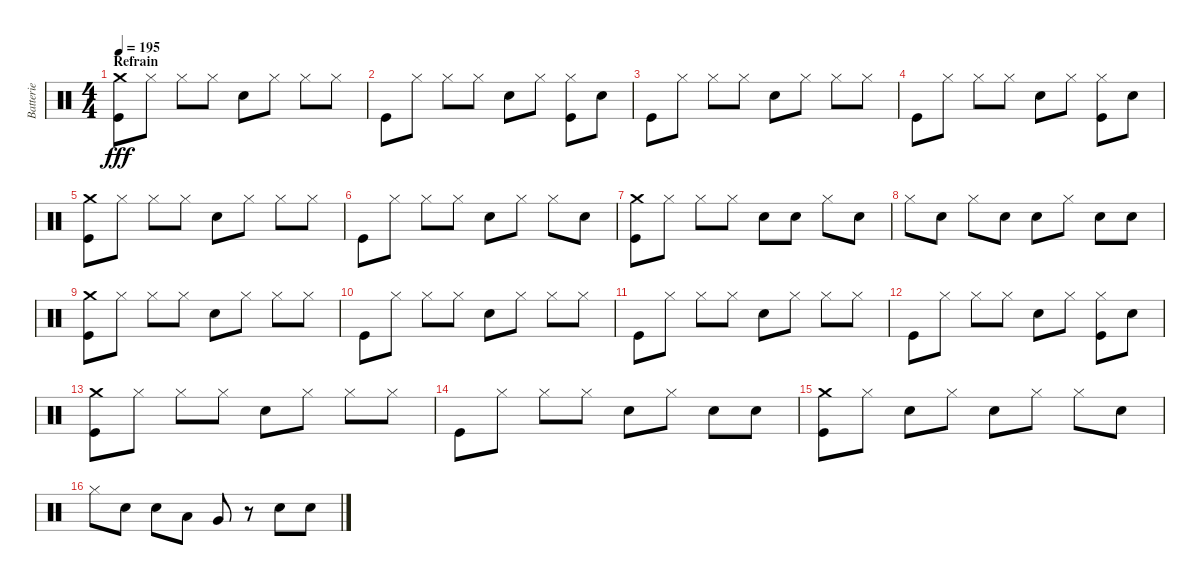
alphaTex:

\track ("Batterie" "Batterie") {instrument percussion}
\staff {score}
\articulation defaults
\ts (4 4)
\section ("" "Refrain")
\tempo 195
\clef neutral
\ks c
("Crash medium (hit)" "Kick (hit)").8{dy fff} "Hi-Hat (closed)".8 "Hi-Hat (closed)".8 "Hi-Hat (closed)".8 "Electric Snare (hit)".8 "Hi-Hat (closed)".8 "Hi-Hat (closed)".8 "Hi-Hat (closed)".8 |
"Kick (hit)".8 "Hi-Hat (closed)".8 "Hi-Hat (closed)".8 "Hi-Hat (closed)".8 "Electric Snare (hit)".8 "Hi-Hat (closed)".8 ("Hi-Hat (closed)" "Kick (hit)").8 "Electric Snare (hit)".8 |
"Kick (hit)".8 "Hi-Hat (closed)".8 "Hi-Hat (closed)".8 "Hi-Hat (closed)".8 "Electric Snare (hit)".8 "Hi-Hat (closed)".8 "Hi-Hat (closed)".8 "Hi-Hat (closed)".8 |
"Kick (hit)".8 "Hi-Hat (closed)".8 "Hi-Hat (closed)".8 "Hi-Hat (closed)".8 "Electric Snare (hit)".8 "Hi-Hat (closed)".8 ("Hi-Hat (closed)" "Kick (hit)").8 "Electric Snare (hit)".8 |
("Crash medium (hit)" "Kick (hit)").8 "Hi-Hat (closed)".8 "Hi-Hat (closed)".8 "Hi-Hat (closed)".8 "Electric Snare (hit)".8 "Hi-Hat (closed)".8 "Hi-Hat (closed)".8 "Hi-Hat (closed)".8 |
"Kick (hit)".8 "Hi-Hat (closed)".8 "Hi-Hat (closed)".8 "Hi-Hat (closed)".8 "Electric Snare (hit)".8 "Hi-Hat (closed)".8 "Hi-Hat (closed)".8 "Electric Snare (hit)".8 |
("Crash medium (hit)" "Kick (hit)").8 "Hi-Hat (closed)".8 "Hi-Hat (closed)".8 "Hi-Hat (closed)".8 "Electric Snare (hit)".8 "Electric Snare (hit)".8 "Hi-Hat (closed)".8 "Electric Snare (hit)".8 |
"Hi-Hat (closed)".8 "Electric Snare (hit)".8 "Hi-Hat (closed)".8 "Electric Snare (hit)".8 "Electric Snare (hit)".8 "Hi-Hat (closed)".8 "Electric Snare (hit)".8 "Electric Snare (hit)".8 |
("Crash medium (hit)" "Kick (hit)").8 "Hi-Hat (closed)".8 "Hi-Hat (closed)".8 "Hi-Hat (closed)".8 "Electric Snare (hit)".8 "Hi-Hat (closed)".8 "Hi-Hat (closed)".8 "Hi-Hat (closed)".8 |
"Kick (hit)".8 "Hi-Hat (closed)".8 "Hi-Hat (closed)".8 "Hi-Hat (closed)".8 "Electric Snare (hit)".8 "Hi-Hat (closed)".8 "Hi-Hat (closed)".8 "Hi-Hat (closed)".8 |
"Kick (hit)".8 "Hi-Hat (closed)".8 "Hi-Hat (closed)".8 "Hi-Hat (closed)".8 "Electric Snare (hit)".8 "Hi-Hat (closed)".8 "Hi-Hat (closed)".8 "Hi-Hat (closed)".8 |
"Kick (hit)".8 "Hi-Hat (closed)".8 "Hi-Hat (closed)".8 "Hi-Hat (closed)".8 "Electric Snare (hit)".8 "Hi-Hat (closed)".8 ("Hi-Hat (closed)" "Kick (hit)").8 "Electric Snare (hit)".8 |
("Crash medium (hit)" "Kick (hit)").8 "Hi-Hat (closed)".8 "Hi-Hat (closed)".8 "Hi-Hat (closed)".8 "Electric Snare (hit)".8 "Hi-Hat (closed)".8 "Hi-Hat (closed)".8 "Hi-Hat (closed)".8 |
"Kick (hit)".8 "Hi-Hat (closed)".8 "Hi-Hat (closed)".8 "Hi-Hat (closed)".8 "Electric Snare (hit)".8 "Hi-Hat (closed)".8 "Electric Snare (hit)".8 "Electric Snare (hit)".8 |
("Crash medium (hit)" "Kick (hit)").8 "Hi-Hat (closed)".8 "Electric Snare (hit)".8 "Hi-Hat (closed)".8 "Electric Snare (hit)".8 "Hi-Hat (closed)".8 "Hi-Hat (closed)".8 "Electric Snare (hit)".8 |
"Hi-Hat (closed)".8 "Electric Snare (hit)".8 "Electric Snare (hit)".8 "Low Tom (hit)".8 "Very Low Tom (hit)".8 r.8 "Electric Snare (hit)".8 "Electric Snare (hit)".8
